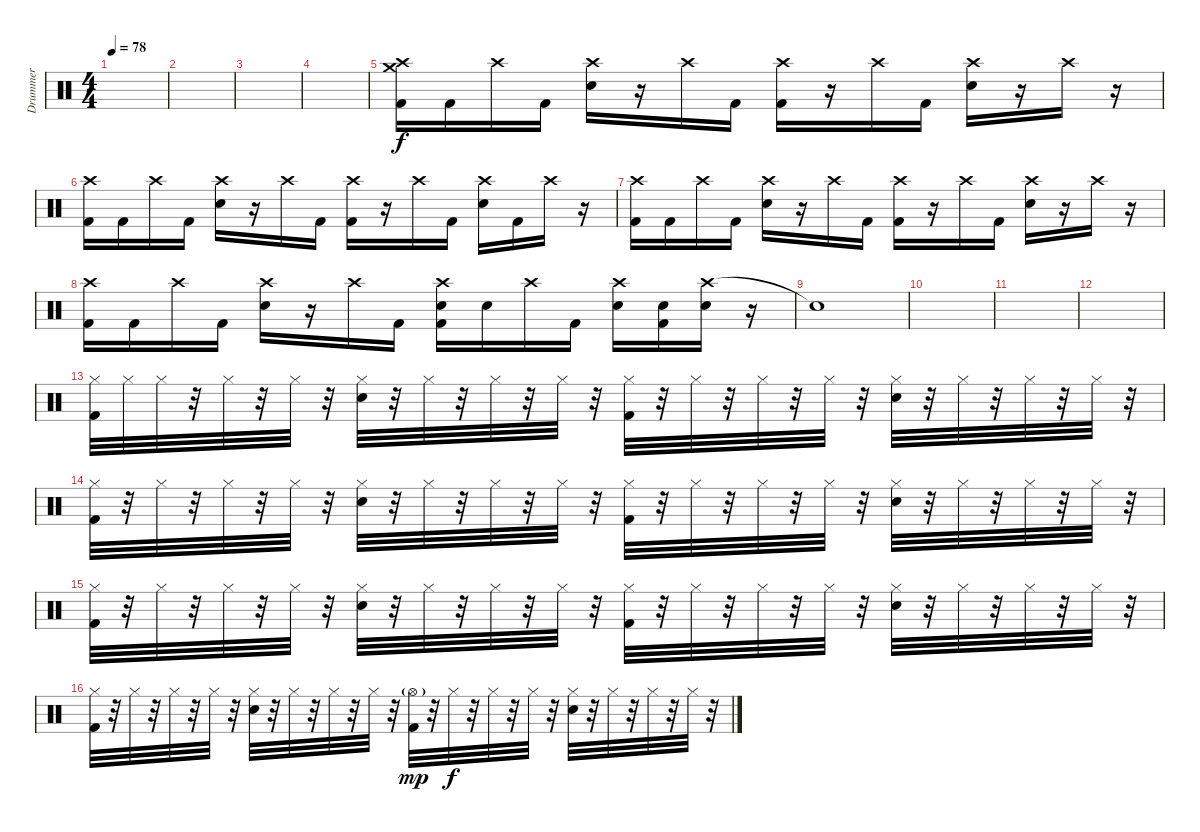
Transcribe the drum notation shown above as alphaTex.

\track ("Drummer" "Drummer") {instrument percussion}
\staff {score}
\articulation defaults
\ts (4 4)
\tempo 78
\clef neutral
\ks c
|
|
|
|
("Crash high (hit)" "Crash medium (hit)" "Kick (hit) 2").16 "Kick (hit) 2".16 "Crash high (hit)".16 "Kick (hit) 2".16 ("Crash high (hit)" "Snare (hit) 2").16 r.16 "Crash high (hit)".16 "Kick (hit) 2".16 ("Crash high (hit)" "Kick (hit) 2").16 r.16 "Crash high (hit)".16 "Kick (hit) 2".16 ("Crash high (hit)" "Snare (hit) 2").16 r.16 "Crash high (hit)".16 r.16 |
("Crash high (hit)" "Kick (hit) 2").16 "Kick (hit) 2".16 "Crash high (hit)".16 "Kick (hit) 2".16 ("Crash high (hit)" "Snare (hit) 2").16 r.16 "Crash high (hit)".16 "Kick (hit) 2".16 ("Crash high (hit)" "Kick (hit) 2").16 r.16 "Crash high (hit)".16 "Kick (hit) 2".16 ("Crash high (hit)" "Snare (hit) 2").16 "Kick (hit) 2".16 "Crash high (hit)".16 r.16 |
("Crash high (hit)" "Kick (hit) 2").16 "Kick (hit) 2".16 "Crash high (hit)".16 "Kick (hit) 2".16 ("Crash high (hit)" "Snare (hit) 2").16 r.16 "Crash high (hit)".16 "Kick (hit) 2".16 ("Crash high (hit)" "Kick (hit) 2").16 r.16 "Crash high (hit)".16 "Kick (hit) 2".16 ("Crash high (hit)" "Snare (hit) 2").16 r.16 "Crash high (hit)".16 r.16 |
("Crash high (hit)" "Kick (hit) 2").16 "Kick (hit) 2".16 "Crash high (hit)".16 "Kick (hit) 2".16 ("Crash high (hit)" "Snare (hit) 2").16 r.16 "Crash high (hit)".16 "Kick (hit) 2".16 ("Crash high (hit)" "Snare (hit) 2" "Kick (hit) 2").16 "Snare (hit) 2".16 "Crash high (hit)".16 "Kick (hit) 2".16 ("Crash high (hit)" "Snare (hit) 2").16 ("Snare (hit) 2" "Kick (hit) 2").16 ("Crash high (hit)" "Snare (hit) 2").16 r.16 |
"Snare (hit)"{t}.1 |
|
|
|
("Hi-Hat (closed)" "Kick (hit) 2").32 "Hi-Hat (closed)".32 "Hi-Hat (closed)".32 r.32 "Hi-Hat (closed)".32 r.32 "Hi-Hat (closed)".32 r.32 ("Hi-Hat (closed)" "Snare (hit) 2").32 r.32 "Hi-Hat (closed)".32 r.32 "Hi-Hat (closed)".32 r.32 "Hi-Hat (closed)".32 r.32 ("Hi-Hat (closed)" "Kick (hit) 2").32 r.32 "Hi-Hat (closed)".32 r.32 "Hi-Hat (closed)".32 r.32 "Hi-Hat (closed)".32 r.32 ("Hi-Hat (closed)" "Snare (hit) 2").32 r.32 "Hi-Hat (closed)".32 r.32 "Hi-Hat (closed)".32 r.32 "Hi-Hat (closed)".32 r.32 |
("Hi-Hat (closed)" "Kick (hit) 2").32 r.32 "Hi-Hat (closed)".32 r.32 "Hi-Hat (closed)".32 r.32 "Hi-Hat (closed)".32 r.32 ("Hi-Hat (closed)" "Snare (hit) 2").32 r.32 "Hi-Hat (closed)".32 r.32 "Hi-Hat (closed)".32 r.32 "Hi-Hat (closed)".32 r.32 ("Hi-Hat (closed)" "Kick (hit) 2").32 r.32 "Hi-Hat (closed)".32 r.32 "Hi-Hat (closed)".32 r.32 "Hi-Hat (closed)".32 r.32 ("Hi-Hat (closed)" "Snare (hit) 2").32 r.32 "Hi-Hat (closed)".32 r.32 "Hi-Hat (closed)".32 r.32 "Hi-Hat (closed)".32 r.32 |
("Hi-Hat (closed)" "Kick (hit) 2").32 r.32 "Hi-Hat (closed)".32 r.32 "Hi-Hat (closed)".32 r.32 "Hi-Hat (closed)".32 r.32 ("Hi-Hat (closed)" "Snare (hit) 2").32 r.32 "Hi-Hat (closed)".32 r.32 "Hi-Hat (closed)".32 r.32 "Hi-Hat (closed)".32 r.32 ("Hi-Hat (closed)" "Kick (hit) 2").32 r.32 "Hi-Hat (closed)".32 r.32 "Hi-Hat (closed)".32 r.32 "Hi-Hat (closed)".32 r.32 ("Hi-Hat (closed)" "Snare (hit) 2").32 r.32 "Hi-Hat (closed)".32 r.32 "Hi-Hat (closed)".32 r.32 "Hi-Hat (closed)".32 r.32 |
("Hi-Hat (closed)" "Kick (hit) 2").32 r.32 "Hi-Hat (closed)".32 r.32 "Hi-Hat (closed)".32 r.32 "Hi-Hat (closed)".32 r.32 ("Hi-Hat (closed)" "Snare (hit) 2").32 r.32 "Hi-Hat (closed)".32 r.32 "Hi-Hat (closed)".32 r.32 "Hi-Hat (closed)".32 r.32 ("Hi-Hat (open)"{g} "Kick (hit) 2").32{dy mp} r.32 "Hi-Hat (closed)".32{dy f} r.32 "Hi-Hat (closed)".32 r.32 "Hi-Hat (closed)".32 r.32 ("Hi-Hat (closed)" "Snare (hit) 2").32 r.32 "Hi-Hat (closed)".32 r.32 "Hi-Hat (closed)".32 r.32 "Hi-Hat (closed)".32 r.32
